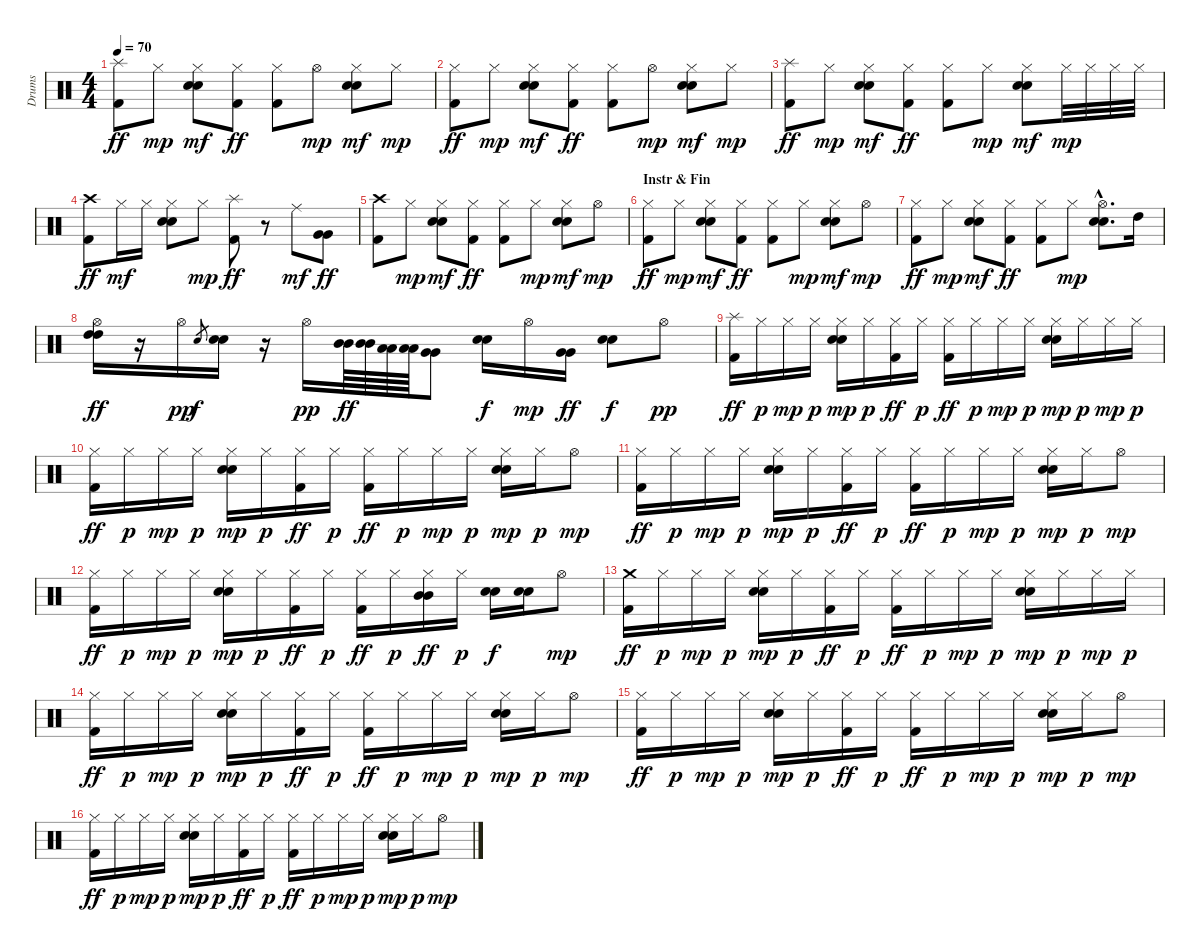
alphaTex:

\track ("Drums" "Drums") {instrument percussion}
\staff {score}
\articulation defaults
\ts (4 4)
\tempo 70
\clef neutral
\ks c
("Splash (hit)" "Kick (hit) 2").8{dy ff} "Hi-Hat (closed)".8{dy mp} ("Hi-Hat (closed)" "Electric Snare (hit)" "Snare (hit) 2").8{dy mf} ("Hi-Hat (closed)" "Kick (hit) 2").8{dy ff} ("Hi-Hat (closed)" "Kick (hit) 2").8 "Hi-Hat (open)".8{dy mp} ("Hi-Hat (closed)" "Electric Snare (hit)" "Snare (hit) 2").8{dy mf} "Hi-Hat (closed)".8{dy mp} |
("Hi-Hat (closed)" "Kick (hit) 2").8{dy ff} "Hi-Hat (closed)".8{dy mp} ("Hi-Hat (closed)" "Electric Snare (hit)" "Snare (hit) 2").8{dy mf} ("Hi-Hat (closed)" "Kick (hit) 2").8{dy ff} ("Hi-Hat (closed)" "Kick (hit) 2").8 "Hi-Hat (open)".8{dy mp} ("Hi-Hat (closed)" "Electric Snare (hit)" "Snare (hit) 2").8{dy mf} "Hi-Hat (closed)".8{dy mp} |
("Splash (hit)" "Kick (hit) 2").8{dy ff} "Hi-Hat (closed)".8{dy mp} ("Hi-Hat (closed)" "Electric Snare (hit)" "Snare (hit) 2").8{dy mf} ("Hi-Hat (closed)" "Kick (hit) 2").8{dy ff} ("Hi-Hat (closed)" "Kick (hit) 2").8 "Hi-Hat (closed)".8{dy mp} ("Hi-Hat (closed)" "Electric Snare (hit)" "Snare (hit) 2").8{dy mf} "Hi-Hat (closed)".32{dy mp} "Hi-Hat (closed)".32 "Hi-Hat (closed)".32 "Hi-Hat (closed)".32 |
("Crash high (hit)" "Kick (hit) 2").8{dy ff} "Hi-Hat (closed)".16{dy mf} "Hi-Hat (closed)".16 ("Hi-Hat (closed)" "Electric Snare (hit)" "Snare (hit) 2").8 "Hi-Hat (closed)".8{dy mp} ("Splash (hit)" "Kick (hit) 2").8{dy ff} r.8 "Ride (middle)".8{dy mf} ("Very Low Tom (hit)" "Very Low Tom (hit)").8{dy ff} |
("Crash high (hit)" "Kick (hit) 2").8 "Hi-Hat (closed)".8{dy mp} ("Hi-Hat (closed)" "Electric Snare (hit)" "Snare (hit) 2").8{dy mf} ("Hi-Hat (closed)" "Kick (hit) 2").8{dy ff} ("Hi-Hat (closed)" "Kick (hit) 2").8 "Hi-Hat (closed)".8{dy mp} ("Hi-Hat (closed)" "Electric Snare (hit)" "Snare (hit) 2").8{dy mf} "Hi-Hat (open)".8{dy mp} |
\section ("" "Instr & Fin")
("Hi-Hat (closed)" "Kick (hit) 2").8{dy ff} "Hi-Hat (closed)".8{dy mp} ("Hi-Hat (closed)" "Electric Snare (hit)" "Snare (hit) 2").8{dy mf} ("Hi-Hat (closed)" "Kick (hit) 2").8{dy ff} ("Hi-Hat (closed)" "Kick (hit) 2").8 "Hi-Hat (closed)".8{dy mp} ("Hi-Hat (closed)" "Electric Snare (hit)" "Snare (hit) 2").8{dy mf} "Hi-Hat (open)".8{dy mp} |
("Hi-Hat (closed)" "Kick (hit) 2").8{dy ff} "Hi-Hat (closed)".8{dy mp} ("Hi-Hat (closed)" "Electric Snare (hit)" "Snare (hit) 2").8{dy mf} ("Hi-Hat (closed)" "Kick (hit) 2").8{dy ff} ("Hi-Hat (closed)" "Kick (hit) 2").8 "Hi-Hat (closed)".8{dy mp} ("Hi-Hat (open)"{hac} "Electric Snare (hit)"{hac} "Snare (hit) 2"{hac}).8{d} "High Tom (hit)".16 |
("Hi-Hat (open)" "High Tom (hit)" "High Tom (hit)").16{dy ff} r.16 "Hi-Hat (open)".16{dy pp} "Electric Snare (hit)".8{gr dy f} ("Electric Snare (hit)" "Snare (hit) 2").16 r.16 "Hi-Hat (open)".16{dy pp} ("Mid Tom (hit)" "Mid Tom (hit)").64{dy ff} ("Mid Tom (hit)" "Mid Tom (hit)").64 ("Low Tom (hit)" "Low Tom (hit)").64 ("Low Tom (hit)" "Low Tom (hit)").64 ("Very Low Tom (hit)" "Very Low Tom (hit)").8 ("Electric Snare (hit)" "Snare (hit) 2").16{dy f} "Hi-Hat (open)".16{dy mp} ("Very Low Tom (hit)" "Very Low Tom (hit)").16{dy ff} ("Electric Snare (hit)" "Snare (hit) 2").8{dy f} "Hi-Hat (open)".8{dy pp} |
("Splash (hit)" "Kick (hit) 2").16{dy ff} "Hi-Hat (closed)".16{dy p} "Hi-Hat (closed)".16{dy mp} "Hi-Hat (closed)".16{dy p} ("Hi-Hat (closed)" "Electric Snare (hit)" "Snare (hit) 2").16{dy mp} "Hi-Hat (closed)".16{dy p} ("Hi-Hat (closed)" "Kick (hit) 2").16{dy ff} "Hi-Hat (closed)".16{dy p} ("Hi-Hat (closed)" "Kick (hit) 2").16{dy ff} "Hi-Hat (closed)".16{dy p} "Hi-Hat (closed)".16{dy mp} "Hi-Hat (closed)".16{dy p} ("Hi-Hat (closed)" "Electric Snare (hit)" "Snare (hit) 2").16{dy mp} "Hi-Hat (closed)".16{dy p} "Hi-Hat (closed)".16{dy mp} "Hi-Hat (closed)".16{dy p} |
("Hi-Hat (closed)" "Kick (hit) 2").16{dy ff} "Hi-Hat (closed)".16{dy p} "Hi-Hat (closed)".16{dy mp} "Hi-Hat (closed)".16{dy p} ("Hi-Hat (closed)" "Electric Snare (hit)" "Snare (hit) 2").16{dy mp} "Hi-Hat (closed)".16{dy p} ("Hi-Hat (closed)" "Kick (hit) 2").16{dy ff} "Hi-Hat (closed)".16{dy p} ("Hi-Hat (closed)" "Kick (hit) 2").16{dy ff} "Hi-Hat (closed)".16{dy p} "Hi-Hat (closed)".16{dy mp} "Hi-Hat (closed)".16{dy p} ("Hi-Hat (closed)" "Electric Snare (hit)" "Snare (hit) 2").16{dy mp} "Hi-Hat (closed)".16{dy p} "Hi-Hat (open)".8{dy mp} |
("Hi-Hat (closed)" "Kick (hit) 2").16{dy ff} "Hi-Hat (closed)".16{dy p} "Hi-Hat (closed)".16{dy mp} "Hi-Hat (closed)".16{dy p} ("Hi-Hat (closed)" "Electric Snare (hit)" "Snare (hit) 2").16{dy mp} "Hi-Hat (closed)".16{dy p} ("Hi-Hat (closed)" "Kick (hit) 2").16{dy ff} "Hi-Hat (closed)".16{dy p} ("Hi-Hat (closed)" "Kick (hit) 2").16{dy ff} "Hi-Hat (closed)".16{dy p} "Hi-Hat (closed)".16{dy mp} "Hi-Hat (closed)".16{dy p} ("Hi-Hat (closed)" "Electric Snare (hit)" "Snare (hit) 2").16{dy mp} "Hi-Hat (closed)".16{dy p} "Hi-Hat (open)".8{dy mp} |
("Hi-Hat (closed)" "Kick (hit) 2").16{dy ff} "Hi-Hat (closed)".16{dy p} "Hi-Hat (closed)".16{dy mp} "Hi-Hat (closed)".16{dy p} ("Hi-Hat (closed)" "Electric Snare (hit)" "Snare (hit) 2").16{dy mp} "Hi-Hat (closed)".16{dy p} ("Hi-Hat (closed)" "Kick (hit) 2").16{dy ff} "Hi-Hat (closed)".16{dy p} ("Hi-Hat (closed)" "Kick (hit) 2").16{dy ff} "Hi-Hat (closed)".16{dy p} ("Hi-Hat (closed)" "Mid Tom (hit)" "Mid Tom (hit)").16{dy ff} "Hi-Hat (closed)".16{dy p} ("Electric Snare (hit)" "Snare (hit) 2").16{dy f} ("Electric Snare (hit)" "Snare (hit) 2").16 "Hi-Hat (open)".8{dy mp} |
("Crash medium (hit)" "Kick (hit) 2").16{dy ff} "Hi-Hat (closed)".16{dy p} "Hi-Hat (closed)".16{dy mp} "Hi-Hat (closed)".16{dy p} ("Hi-Hat (closed)" "Electric Snare (hit)" "Snare (hit) 2").16{dy mp} "Hi-Hat (closed)".16{dy p} ("Hi-Hat (closed)" "Kick (hit) 2").16{dy ff} "Hi-Hat (closed)".16{dy p} ("Hi-Hat (closed)" "Kick (hit) 2").16{dy ff} "Hi-Hat (closed)".16{dy p} "Hi-Hat (closed)".16{dy mp} "Hi-Hat (closed)".16{dy p} ("Hi-Hat (closed)" "Electric Snare (hit)" "Snare (hit) 2").16{dy mp} "Hi-Hat (closed)".16{dy p} "Hi-Hat (closed)".16{dy mp} "Hi-Hat (closed)".16{dy p} |
("Hi-Hat (closed)" "Kick (hit) 2").16{dy ff} "Hi-Hat (closed)".16{dy p} "Hi-Hat (closed)".16{dy mp} "Hi-Hat (closed)".16{dy p} ("Hi-Hat (closed)" "Electric Snare (hit)" "Snare (hit) 2").16{dy mp} "Hi-Hat (closed)".16{dy p} ("Hi-Hat (closed)" "Kick (hit) 2").16{dy ff} "Hi-Hat (closed)".16{dy p} ("Hi-Hat (closed)" "Kick (hit) 2").16{dy ff} "Hi-Hat (closed)".16{dy p} "Hi-Hat (closed)".16{dy mp} "Hi-Hat (closed)".16{dy p} ("Hi-Hat (closed)" "Electric Snare (hit)" "Snare (hit) 2").16{dy mp} "Hi-Hat (closed)".16{dy p} "Hi-Hat (open)".8{dy mp} |
("Hi-Hat (closed)" "Kick (hit) 2").16{dy ff} "Hi-Hat (closed)".16{dy p} "Hi-Hat (closed)".16{dy mp} "Hi-Hat (closed)".16{dy p} ("Hi-Hat (closed)" "Electric Snare (hit)" "Snare (hit) 2").16{dy mp} "Hi-Hat (closed)".16{dy p} ("Hi-Hat (closed)" "Kick (hit) 2").16{dy ff} "Hi-Hat (closed)".16{dy p} ("Hi-Hat (closed)" "Kick (hit) 2").16{dy ff} "Hi-Hat (closed)".16{dy p} "Hi-Hat (closed)".16{dy mp} "Hi-Hat (closed)".16{dy p} ("Hi-Hat (closed)" "Electric Snare (hit)" "Snare (hit) 2").16{dy mp} "Hi-Hat (closed)".16{dy p} "Hi-Hat (open)".8{dy mp} |
("Hi-Hat (closed)" "Kick (hit) 2").16{dy ff} "Hi-Hat (closed)".16{dy p} "Hi-Hat (closed)".16{dy mp} "Hi-Hat (closed)".16{dy p} ("Hi-Hat (closed)" "Electric Snare (hit)" "Snare (hit) 2").16{dy mp} "Hi-Hat (closed)".16{dy p} ("Hi-Hat (closed)" "Kick (hit) 2").16{dy ff} "Hi-Hat (closed)".16{dy p} ("Hi-Hat (closed)" "Kick (hit) 2").16{dy ff} "Hi-Hat (closed)".16{dy p} "Hi-Hat (closed)".16{dy mp} "Hi-Hat (closed)".16{dy p} ("Hi-Hat (closed)" "Electric Snare (hit)" "Snare (hit) 2").16{dy mp} "Hi-Hat (closed)".16{dy p} "Hi-Hat (open)".8{dy mp}
